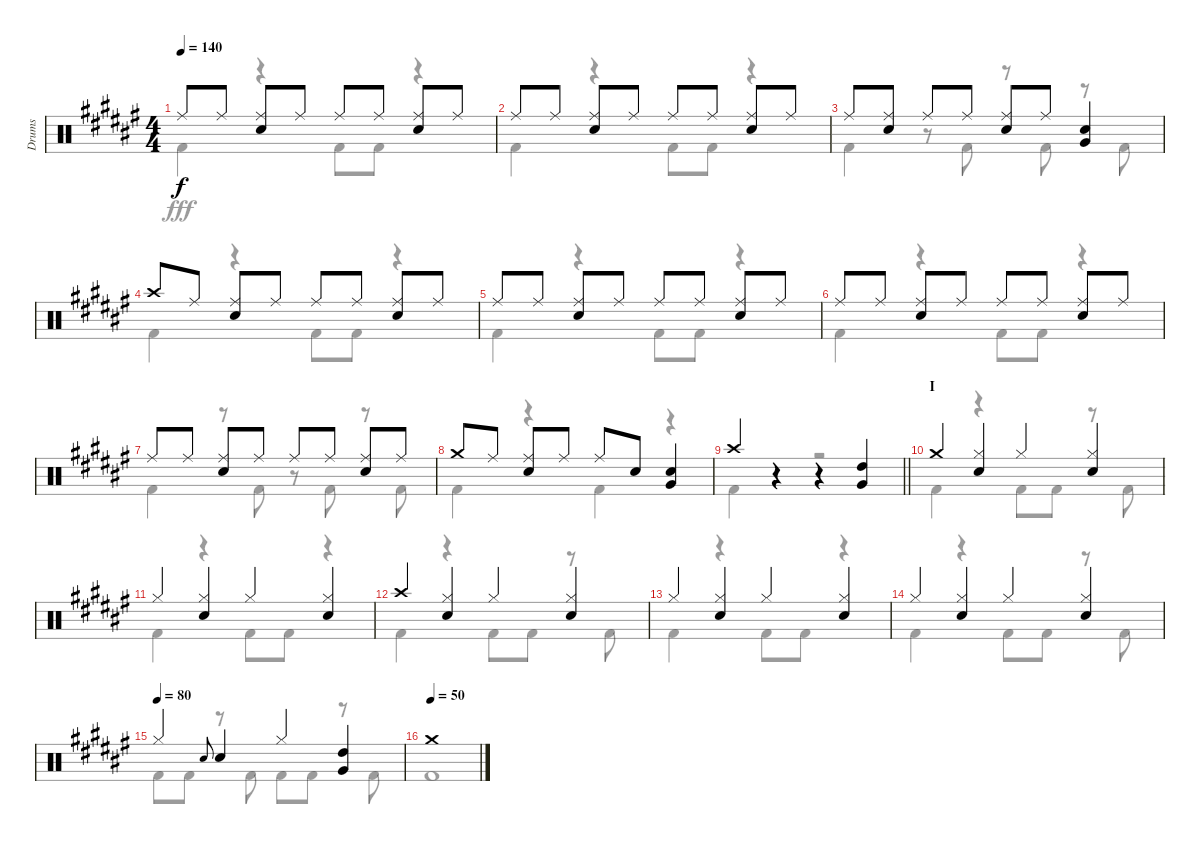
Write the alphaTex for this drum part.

\track ("Drums" "Drums") {instrument percussion}
\staff {score}
\articulation defaults
\voice
\ts (4 4)
\tempo 140
\clef neutral
\ks f# "Ride (middle)".8{dy f} "Ride (middle)".8
("Ride (middle)" "Snare (hit) 2").8 "Ride (middle)".8 "Ride (middle)".8 "Ride (middle)".8 ("Ride (middle)" "Snare (hit) 2").8 "Ride (middle)".8 |
"Ride (middle)".8 "Ride (middle)".8 ("Ride (middle)" "Snare (hit) 2").8 "Ride (middle)".8 "Ride (middle)".8 "Ride (middle)".8 ("Ride (middle)" "Snare (hit) 2").8 "Ride (middle)".8 |
"Ride (middle)".8 ("Ride (middle)" "Snare (hit) 2").8 "Ride (middle)".8 "Ride (middle)".8 ("Ride (middle)" "Snare (hit) 2").8 "Ride (middle)".8 ("Snare (hit) 2" "Very Low Tom (hit)").4 |
"Crash high (hit)".8 "Ride (middle)".8 ("Ride (middle)" "Snare (hit) 2").8 "Ride (middle)".8 "Ride (middle)".8 "Ride (middle)".8 ("Ride (middle)" "Snare (hit) 2").8 "Ride (middle)".8 |
"Ride (middle)".8 "Ride (middle)".8 ("Ride (middle)" "Snare (hit) 2").8 "Ride (middle)".8 "Ride (middle)".8 "Ride (middle)".8 ("Ride (middle)" "Snare (hit) 2").8 "Ride (middle)".8 |
"Ride (middle)".8 "Ride (middle)".8 ("Ride (middle)" "Snare (hit) 2").8 "Ride (middle)".8 "Ride (middle)".8 "Ride (middle)".8 ("Ride (middle)" "Snare (hit) 2").8 "Ride (middle)".8 |
"Ride (middle)".8 "Ride (middle)".8 ("Ride (middle)" "Snare (hit) 2").8 "Ride (middle)".8 "Ride (middle)".8 "Ride (middle)".8 ("Ride (middle)" "Snare (hit) 2").8 "Ride (middle)".8 |
"Crash medium (hit)".8 "Ride (middle)".8 ("Ride (middle)" "Snare (hit) 2").8 "Ride (middle)".8 "Ride (middle)".8 "Snare (hit) 2".8 ("Snare (hit) 2" "Very Low Tom (hit)").4 |
\barLineRight lightlight "Crash high (hit)".4
r.4 r.4 ("High Tom (hit)" "Very Low Tom (hit)").4 |
\section ("" "I")
"Crash medium (hit)".4 ("Hi-Hat (closed)" "Snare (hit) 2").4 "Hi-Hat (closed)".4 ("Hi-Hat (closed)" "Snare (hit) 2").4 |
"Hi-Hat (closed)".4 ("Hi-Hat (closed)" "Snare (hit) 2").4 "Hi-Hat (closed)".4 ("Hi-Hat (closed)" "Snare (hit) 2").4 |
"Crash high (hit)".4 ("Hi-Hat (closed)" "Snare (hit) 2").4 "Hi-Hat (closed)".4 ("Hi-Hat (closed)" "Snare (hit) 2").4 |
"Hi-Hat (closed)".4 ("Hi-Hat (closed)" "Snare (hit) 2").4 "Hi-Hat (closed)".4 ("Hi-Hat (closed)" "Snare (hit) 2").4 |
"Hi-Hat (closed)".4 ("Hi-Hat (closed)" "Snare (hit) 2").4 "Hi-Hat (closed)".4 ("Hi-Hat (closed)" "Snare (hit) 2").4 |
\tempo (80)
"Hi-Hat (closed)".4 "Snare (hit) 2".8{gr onbeat} "Snare (hit) 2".4 "Hi-Hat (closed)".4 ("High Tom (hit)" "Very Low Tom (hit)").4 |
\tempo (50)
"Crash medium (hit)".1
\voice
\clef neutral
\ottava regular
\simile none
\ks f# "Kick (hit) 2".4{dy fff}
r.4 "Kick (hit) 2".8 "Kick (hit) 2".8 r.4 |
"Kick (hit) 2".4 r.4 "Kick (hit) 2".8 "Kick (hit) 2".8 r.4 |
"Kick (hit) 2".4 r.8 "Kick (hit) 2".8 r.8 "Kick (hit) 2".8 r.8 "Kick (hit) 2".8 |
"Kick (hit) 2".4 r.4 "Kick (hit) 2".8 "Kick (hit) 2".8 r.4 |
"Kick (hit) 2".4 r.4 "Kick (hit) 2".8 "Kick (hit) 2".8 r.4 |
"Kick (hit) 2".4 r.4 "Kick (hit) 2".8 "Kick (hit) 2".8 r.4 |
"Kick (hit) 2".4 r.8 "Kick (hit) 2".8 r.8 "Kick (hit) 2".8 r.8 "Kick (hit) 2".8 |
"Kick (hit) 2".4 r.4 "Kick (hit) 2".4 r.4 |
\barLineRight lightlight "Kick (hit) 2".4
r.4 r.2 |
"Kick (hit) 2".4 r.4 "Kick (hit) 2".8 "Kick (hit) 2".8 r.8 "Kick (hit) 2".8 |
"Kick (hit) 2".4 r.4 "Kick (hit) 2".8 "Kick (hit) 2".8 r.4 |
"Kick (hit) 2".4 r.4 "Kick (hit) 2".8 "Kick (hit) 2".8 r.8 "Kick (hit) 2".8 |
"Kick (hit) 2".4 r.4 "Kick (hit) 2".8 "Kick (hit) 2".8 r.4 |
"Kick (hit) 2".4 r.4 "Kick (hit) 2".8 "Kick (hit) 2".8 r.8 "Kick (hit) 2".8 |
"Kick (hit) 2".8 "Kick (hit) 2".8 r.8 "Kick (hit) 2".8 "Kick (hit) 2".8 "Kick (hit) 2".8 r.8 "Kick (hit) 2".8 |
"Kick (hit) 2".1
